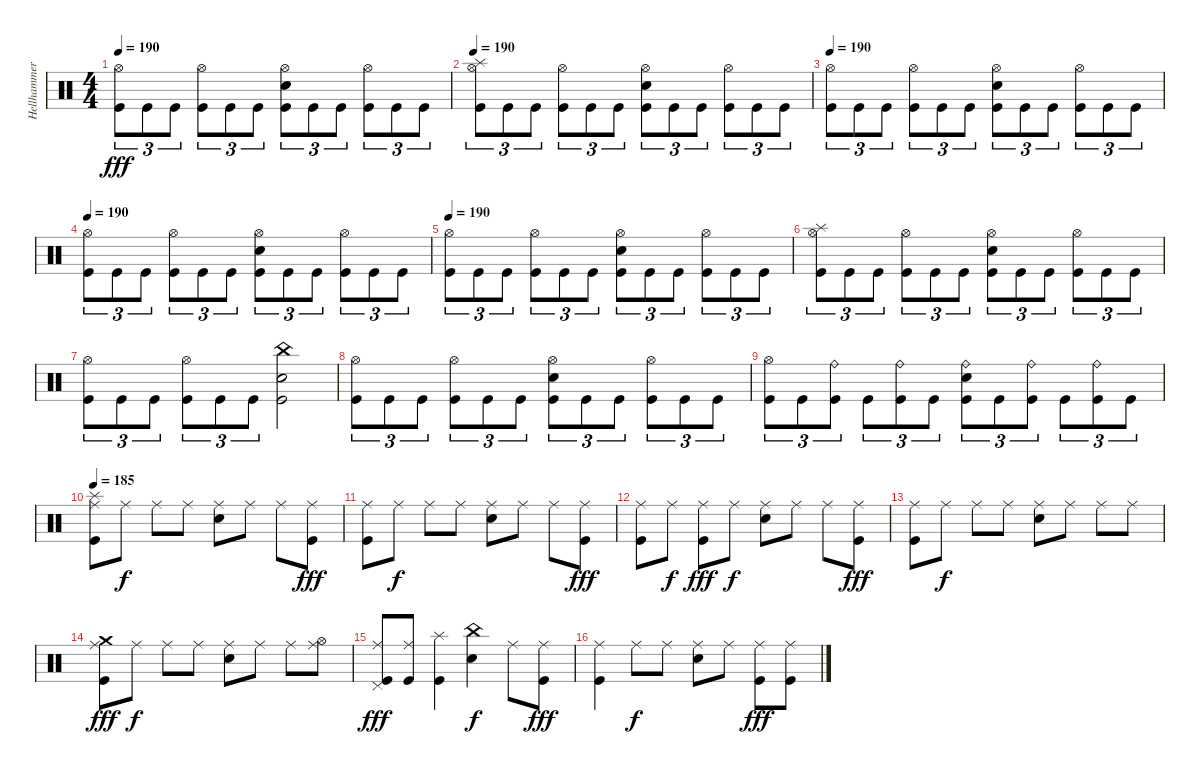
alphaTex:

\track ("Hellhammer" "Hellhammer") {instrument percussion}
\staff {score}
\articulation defaults
\ts (4 4)
\tempo 190
\clef neutral
\ks c
("Hi-Hat (open)" "Kick (hit)").8{tu (3 2) dy fff} "Kick (hit)".8{tu (3 2)} "Kick (hit)".8{tu (3 2)} ("Hi-Hat (open)" "Kick (hit)").8{tu (3 2)} "Kick (hit)".8{tu (3 2)} "Kick (hit)".8{tu (3 2)} ("Hi-Hat (open)" "Electric Snare (hit)" "Kick (hit)").8{tu (3 2)} "Kick (hit)".8{tu (3 2)} "Kick (hit)".8{tu (3 2)} ("Hi-Hat (open)" "Kick (hit)").8{tu (3 2)} "Kick (hit)".8{tu (3 2)} "Kick (hit)".8{tu (3 2)} |
\tempo 190
("Splash (hit)" "Hi-Hat (open)" "Kick (hit)").8{tu (3 2)} "Kick (hit)".8{tu (3 2)} "Kick (hit)".8{tu (3 2)} ("Hi-Hat (open)" "Kick (hit)").8{tu (3 2)} "Kick (hit)".8{tu (3 2)} "Kick (hit)".8{tu (3 2)} ("Hi-Hat (open)" "Electric Snare (hit)" "Kick (hit)").8{tu (3 2)} "Kick (hit)".8{tu (3 2)} "Kick (hit)".8{tu (3 2)} ("Hi-Hat (open)" "Kick (hit)").8{tu (3 2)} "Kick (hit)".8{tu (3 2)} "Kick (hit)".8{tu (3 2)} |
\tempo 190
("Hi-Hat (open)" "Kick (hit)").8{tu (3 2)} "Kick (hit)".8{tu (3 2)} "Kick (hit)".8{tu (3 2)} ("Hi-Hat (open)" "Kick (hit)").8{tu (3 2)} "Kick (hit)".8{tu (3 2)} "Kick (hit)".8{tu (3 2)} ("Hi-Hat (open)" "Electric Snare (hit)" "Kick (hit)").8{tu (3 2)} "Kick (hit)".8{tu (3 2)} "Kick (hit)".8{tu (3 2)} ("Hi-Hat (open)" "Kick (hit)").8{tu (3 2)} "Kick (hit)".8{tu (3 2)} "Kick (hit)".8{tu (3 2)} |
\tempo 190
("Hi-Hat (open)" "Kick (hit)").8{tu (3 2)} "Kick (hit)".8{tu (3 2)} "Kick (hit)".8{tu (3 2)} ("Hi-Hat (open)" "Kick (hit)").8{tu (3 2)} "Kick (hit)".8{tu (3 2)} "Kick (hit)".8{tu (3 2)} ("Hi-Hat (open)" "Electric Snare (hit)" "Kick (hit)").8{tu (3 2)} "Kick (hit)".8{tu (3 2)} "Kick (hit)".8{tu (3 2)} ("Hi-Hat (open)" "Kick (hit)").8{tu (3 2)} "Kick (hit)".8{tu (3 2)} "Kick (hit)".8{tu (3 2)} |
\tempo 190
("Hi-Hat (open)" "Kick (hit)").8{tu (3 2)} "Kick (hit)".8{tu (3 2)} "Kick (hit)".8{tu (3 2)} ("Hi-Hat (open)" "Kick (hit)").8{tu (3 2)} "Kick (hit)".8{tu (3 2)} "Kick (hit)".8{tu (3 2)} ("Hi-Hat (open)" "Electric Snare (hit)" "Kick (hit)").8{tu (3 2)} "Kick (hit)".8{tu (3 2)} "Kick (hit)".8{tu (3 2)} ("Hi-Hat (open)" "Kick (hit)").8{tu (3 2)} "Kick (hit)".8{tu (3 2)} "Kick (hit)".8{tu (3 2)} |
("Splash (hit)" "Hi-Hat (open)" "Kick (hit)").8{tu (3 2)} "Kick (hit)".8{tu (3 2)} "Kick (hit)".8{tu (3 2)} ("Hi-Hat (open)" "Kick (hit)").8{tu (3 2)} "Kick (hit)".8{tu (3 2)} "Kick (hit)".8{tu (3 2)} ("Hi-Hat (open)" "Electric Snare (hit)" "Kick (hit)").8{tu (3 2)} "Kick (hit)".8{tu (3 2)} "Kick (hit)".8{tu (3 2)} ("Hi-Hat (open)" "Kick (hit)").8{tu (3 2)} "Kick (hit)".8{tu (3 2)} "Kick (hit)".8{tu (3 2)} |
("Hi-Hat (open)" "Kick (hit)").8{tu (3 2)} "Kick (hit)".8{tu (3 2)} "Kick (hit)".8{tu (3 2)} ("Hi-Hat (open)" "Kick (hit)").8{tu (3 2)} "Kick (hit)".8{tu (3 2)} "Kick (hit)".8{tu (3 2)} ("China (hit)" "Electric Snare (hit)" "Kick (hit)").2 |
("Hi-Hat (open)" "Kick (hit)").8{tu (3 2)} "Kick (hit)".8{tu (3 2)} "Kick (hit)".8{tu (3 2)} ("Hi-Hat (open)" "Kick (hit)").8{tu (3 2)} "Kick (hit)".8{tu (3 2)} "Kick (hit)".8{tu (3 2)} ("Hi-Hat (open)" "Electric Snare (hit)" "Kick (hit)").8{tu (3 2)} "Kick (hit)".8{tu (3 2)} "Kick (hit)".8{tu (3 2)} ("Hi-Hat (open)" "Kick (hit)").8{tu (3 2)} "Kick (hit)".8{tu (3 2)} "Kick (hit)".8{tu (3 2)} |
("Hi-Hat (open)" "Kick (hit)").8{tu (3 2)} "Kick (hit)".8{tu (3 2)} ("Ride (bell)" "Kick (hit)").8{tu (3 2)} "Kick (hit)".8{tu (3 2)} ("Ride (bell)" "Kick (hit)").8{tu (3 2)} "Kick (hit)".8{tu (3 2)} ("Ride (bell)" "Electric Snare (hit)" "Kick (hit)").8{tu (3 2)} "Kick (hit)".8{tu (3 2)} ("Ride (bell)" "Kick (hit)").8{tu (3 2)} "Kick (hit)".8{tu (3 2)} ("Ride (bell)" "Kick (hit)").8{tu (3 2)} "Kick (hit)".8{tu (3 2)} |
\tempo 185
("Splash (hit)" "Ride (middle)" "Kick (hit)").8 "Ride (middle)".8{dy f} "Ride (middle)".8 "Ride (middle)".8 ("Ride (middle)" "Electric Snare (hit)").8 "Ride (middle)".8 "Ride (middle)".8 ("Ride (middle)" "Kick (hit)").8{dy fff} |
("Ride (middle)" "Kick (hit)").8 "Ride (middle)".8{dy f} "Ride (middle)".8 "Ride (middle)".8 ("Ride (middle)" "Electric Snare (hit)").8 "Ride (middle)".8 "Ride (middle)".8 ("Ride (middle)" "Kick (hit)").8{dy fff} |
("Ride (middle)" "Kick (hit)").8 "Ride (middle)".8{dy f} ("Ride (middle)" "Kick (hit)").8{dy fff} "Ride (middle)".8{dy f} ("Ride (middle)" "Electric Snare (hit)").8 "Ride (middle)".8 "Ride (middle)".8 ("Ride (middle)" "Kick (hit)").8{dy fff} |
("Ride (middle)" "Kick (hit)").8 "Ride (middle)".8{dy f} "Ride (middle)".8 "Ride (middle)".8 ("Ride (middle)" "Electric Snare (hit)").8 "Ride (middle)".8 "Ride (middle)".8 "Ride (middle)".8 |
("Crash medium (hit)" "Ride (middle)" "Kick (hit)").8{dy fff} "Ride (middle)".8{dy f} "Ride (middle)".8 "Ride (middle)".8 ("Ride (middle)" "Electric Snare (hit)").8 "Ride (middle)".8 "Ride (middle)".8 ("Hi-Hat (open)" "Ride (middle)").8 |
("Pedal Hi-Hat (hit)" "Ride (middle)" "Kick (hit)").8{dy fff} ("Ride (middle)" "Kick (hit)").8 ("Splash (hit)" "Kick (hit)").4 ("China (hit)" "Electric Snare (hit)").4{dy f} "Ride (middle)".8 ("Ride (middle)" "Kick (hit)").8{dy fff} |
("Ride (middle)" "Kick (hit)").4 "Ride (middle)".8{dy f} "Ride (middle)".8 ("Ride (middle)" "Electric Snare (hit)").8 "Ride (middle)".8 ("Ride (middle)" "Kick (hit)").8{dy fff} ("Ride (middle)" "Kick (hit)").8
